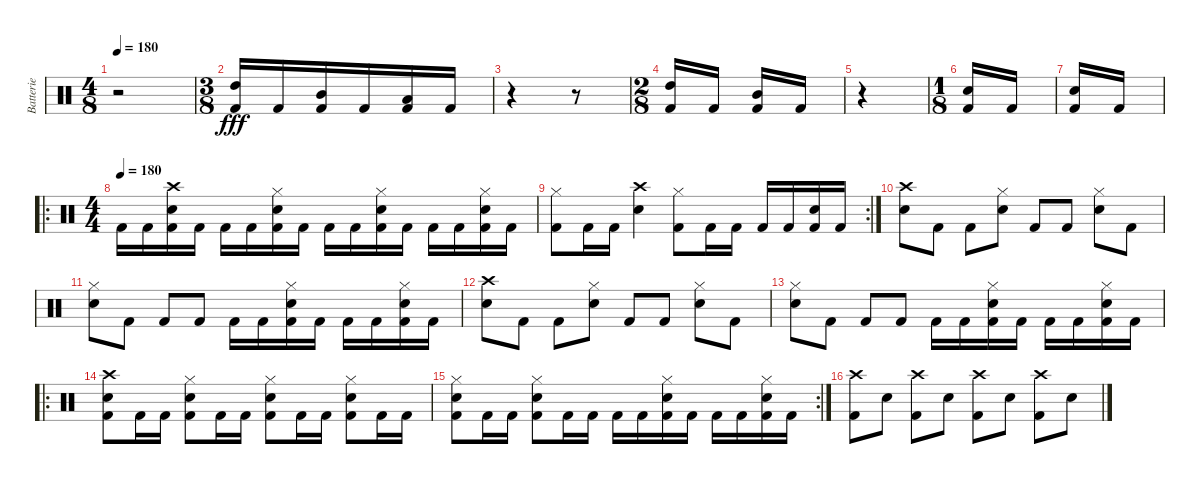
\track ("Batterie" "Batterie") {instrument percussion}
\staff {score}
\articulation defaults
\ts (4 8)
\tempo 180
\clef neutral
\ks c
r.2{dy fff} |
\ts (3 8)
("High Tom (hit)" "Kick (hit) 2").16 "Kick (hit) 2".16 ("Mid Tom (hit)" "Kick (hit) 2").16 "Kick (hit) 2".16 ("Low Tom (hit)" "Kick (hit) 2").16 "Kick (hit) 2".16 |
r.4 r.8 |
\ts (2 8)
("High Tom (hit)" "Kick (hit) 2").16 "Kick (hit) 2".16 ("Mid Tom (hit)" "Kick (hit) 2").16 "Kick (hit) 2".16 |
r.4 |
\ts (1 8)
("Snare (hit) 2" "Kick (hit) 2").16 "Kick (hit) 2".16 |
("Snare (hit) 2" "Kick (hit) 2").16 "Kick (hit) 2".16 |
\ro
\ts (4 4)
\tempo (180)
"Kick (hit) 2".16 "Kick (hit) 2".16 ("Crash high (hit)" "Snare (hit) 2" "Kick (hit) 2").16 "Kick (hit) 2".16 "Kick (hit) 2".16 "Kick (hit) 2".16 ("Hi-Hat (closed)" "Snare (hit) 2" "Kick (hit) 2").16 "Kick (hit) 2".16 "Kick (hit) 2".16 "Kick (hit) 2".16 ("Hi-Hat (closed)" "Snare (hit) 2" "Kick (hit) 2").16 "Kick (hit) 2".16 "Kick (hit) 2".16 "Kick (hit) 2".16 ("Hi-Hat (closed)" "Snare (hit) 2" "Kick (hit) 2").16 "Kick (hit) 2".16 |
\rc 2
("Hi-Hat (closed)" "Kick (hit) 2").8 "Kick (hit) 2".16 "Kick (hit) 2".16 ("Crash high (hit)" "Snare (hit) 2").4 ("Hi-Hat (closed)" "Kick (hit) 2").8 "Kick (hit) 2".16 "Kick (hit) 2".16 "Kick (hit) 2".16 "Kick (hit) 2".16 ("Snare (hit) 2" "Kick (hit) 2").16 "Kick (hit) 2".16 |
("Crash high (hit)" "Snare (hit) 2").8 "Kick (hit) 2".8 "Kick (hit) 2".8 ("Hi-Hat (closed)" "Snare (hit) 2").8 "Kick (hit) 2".8 "Kick (hit) 2".8 ("Hi-Hat (closed)" "Snare (hit) 2").8 "Kick (hit) 2".8 |
("Hi-Hat (closed)" "Snare (hit) 2").8 "Kick (hit) 2".8 "Kick (hit) 2".8 "Kick (hit) 2".8 "Kick (hit) 2".16 "Kick (hit) 2".16 ("Hi-Hat (closed)" "Snare (hit) 2" "Kick (hit) 2").16 "Kick (hit) 2".16 "Kick (hit) 2".16 "Kick (hit) 2".16 ("Hi-Hat (closed)" "Snare (hit) 2" "Kick (hit) 2").16 "Kick (hit) 2".16 |
("Crash high (hit)" "Snare (hit) 2").8 "Kick (hit) 2".8 "Kick (hit) 2".8 ("Hi-Hat (closed)" "Snare (hit) 2").8 "Kick (hit) 2".8 "Kick (hit) 2".8 ("Hi-Hat (closed)" "Snare (hit) 2").8 "Kick (hit) 2".8 |
("Hi-Hat (closed)" "Snare (hit) 2").8 "Kick (hit) 2".8 "Kick (hit) 2".8 "Kick (hit) 2".8 "Kick (hit) 2".16 "Kick (hit) 2".16 ("Hi-Hat (closed)" "Snare (hit) 2" "Kick (hit) 2").16 "Kick (hit) 2".16 "Kick (hit) 2".16 "Kick (hit) 2".16 ("Hi-Hat (closed)" "Snare (hit) 2" "Kick (hit) 2").16 "Kick (hit) 2".16 |
\ro
("Crash high (hit)" "Snare (hit) 2" "Kick (hit) 2").8 "Kick (hit) 2".16 "Kick (hit) 2".16 ("Hi-Hat (closed)" "Snare (hit) 2" "Kick (hit) 2").8 "Kick (hit) 2".16 "Kick (hit) 2".16 ("Hi-Hat (closed)" "Snare (hit) 2" "Kick (hit) 2").8 "Kick (hit) 2".16 "Kick (hit) 2".16 ("Hi-Hat (closed)" "Snare (hit) 2" "Kick (hit) 2").8 "Kick (hit) 2".16 "Kick (hit) 2".16 |
\rc 2
("Hi-Hat (closed)" "Snare (hit) 2" "Kick (hit) 2").8 "Kick (hit) 2".16 "Kick (hit) 2".16 ("Hi-Hat (closed)" "Snare (hit) 2" "Kick (hit) 2").8 "Kick (hit) 2".16 "Kick (hit) 2".16 "Kick (hit) 2".16 "Kick (hit) 2".16 ("Hi-Hat (closed)" "Snare (hit) 2" "Kick (hit) 2").16 "Kick (hit) 2".16 "Kick (hit) 2".16 "Kick (hit) 2".16 ("Hi-Hat (closed)" "Snare (hit) 2" "Kick (hit) 2").16 "Kick (hit) 2".16 |
("Crash high (hit)" "Kick (hit) 2").8 "Snare (hit) 2".8 ("Crash high (hit)" "Kick (hit) 2").8 "Snare (hit) 2".8 ("Crash high (hit)" "Kick (hit) 2").8 "Snare (hit) 2".8 ("Crash high (hit)" "Kick (hit) 2").8 "Snare (hit) 2".8
